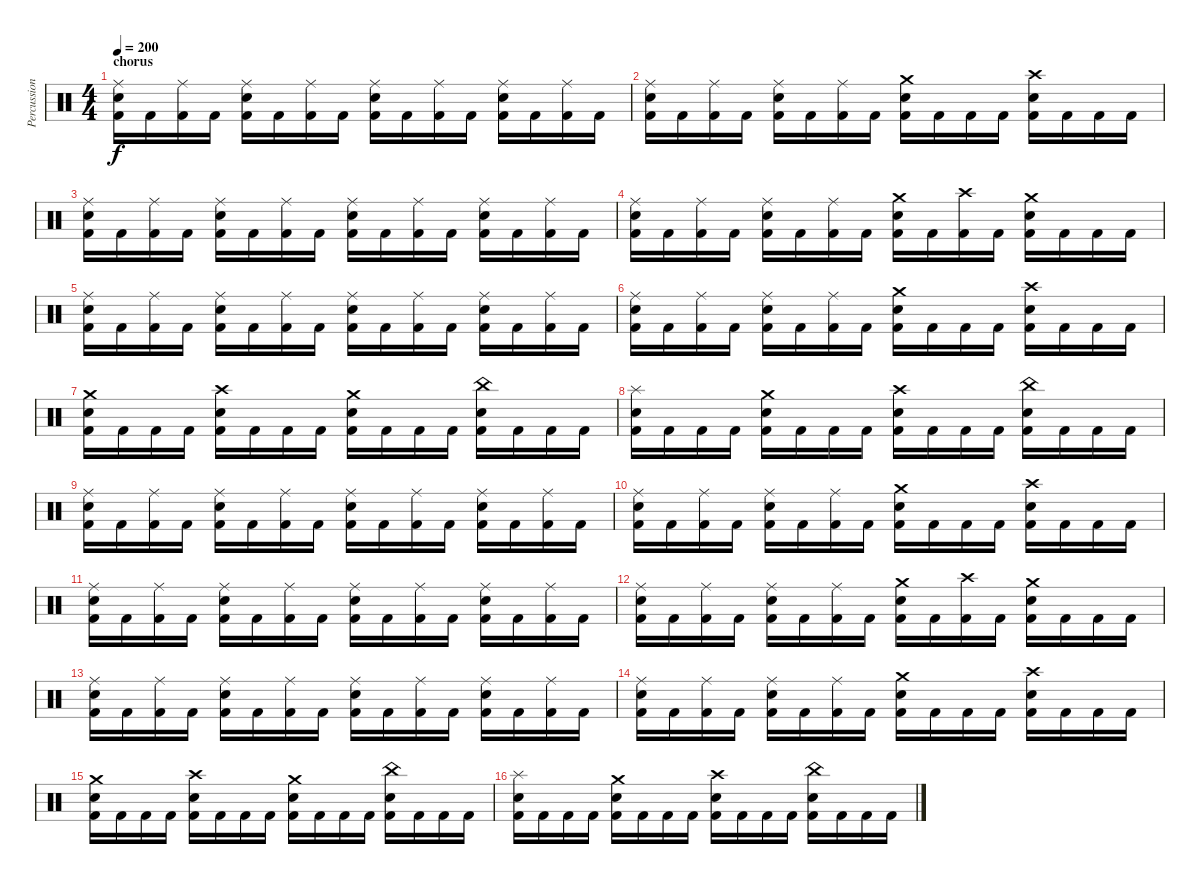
\track ("Percussions" "Percussion") {instrument percussion}
\staff {score}
\articulation defaults
\ts (4 4)
\section ("" "chorus")
\tempo 200
\clef neutral
\ks c
("Ride (middle)" "Electric Snare (hit)" "Kick (hit) 2").16{dy f} "Kick (hit) 2".16 ("Ride (middle)" "Kick (hit) 2").16 "Kick (hit) 2".16 ("Ride (middle)" "Electric Snare (hit)" "Kick (hit) 2").16 "Kick (hit) 2".16 ("Ride (middle)" "Kick (hit) 2").16 "Kick (hit) 2".16 ("Ride (middle)" "Electric Snare (hit)" "Kick (hit) 2").16 "Kick (hit) 2".16 ("Ride (middle)" "Kick (hit) 2").16 "Kick (hit) 2".16 ("Ride (middle)" "Electric Snare (hit)" "Kick (hit) 2").16 "Kick (hit) 2".16 ("Ride (middle)" "Kick (hit) 2").16 "Kick (hit) 2".16 |
("Ride (middle)" "Electric Snare (hit)" "Kick (hit) 2").16 "Kick (hit) 2".16 ("Ride (middle)" "Kick (hit) 2").16 "Kick (hit) 2".16 ("Ride (middle)" "Electric Snare (hit)" "Kick (hit) 2").16 "Kick (hit) 2".16 ("Ride (middle)" "Kick (hit) 2").16 "Kick (hit) 2".16 ("Crash medium (hit)" "Electric Snare (hit)" "Kick (hit) 2").16 "Kick (hit) 2".16 "Kick (hit) 2".16 "Kick (hit) 2".16 ("Crash high (hit)" "Electric Snare (hit)" "Kick (hit) 2").16 "Kick (hit) 2".16 "Kick (hit) 2".16 "Kick (hit) 2".16 |
("Ride (middle)" "Electric Snare (hit)" "Kick (hit) 2").16 "Kick (hit) 2".16 ("Ride (middle)" "Kick (hit) 2").16 "Kick (hit) 2".16 ("Ride (middle)" "Electric Snare (hit)" "Kick (hit) 2").16 "Kick (hit) 2".16 ("Ride (middle)" "Kick (hit) 2").16 "Kick (hit) 2".16 ("Ride (middle)" "Electric Snare (hit)" "Kick (hit) 2").16 "Kick (hit) 2".16 ("Ride (middle)" "Kick (hit) 2").16 "Kick (hit) 2".16 ("Ride (middle)" "Electric Snare (hit)" "Kick (hit) 2").16 "Kick (hit) 2".16 ("Ride (middle)" "Kick (hit) 2").16 "Kick (hit) 2".16 |
("Ride (middle)" "Electric Snare (hit)" "Kick (hit) 2").16 "Kick (hit) 2".16 ("Ride (middle)" "Kick (hit) 2").16 "Kick (hit) 2".16 ("Ride (middle)" "Electric Snare (hit)" "Kick (hit) 2").16 "Kick (hit) 2".16 ("Ride (middle)" "Kick (hit) 2").16 "Kick (hit) 2".16 ("Crash medium (hit)" "Electric Snare (hit)" "Kick (hit) 2").16 "Kick (hit) 2".16 ("Crash high (hit)" "Kick (hit) 2").16 "Kick (hit) 2".16 ("Crash medium (hit)" "Electric Snare (hit)" "Kick (hit) 2").16 "Kick (hit) 2".16 "Kick (hit) 2".16 "Kick (hit) 2".16 |
("Ride (middle)" "Electric Snare (hit)" "Kick (hit) 2").16 "Kick (hit) 2".16 ("Ride (middle)" "Kick (hit) 2").16 "Kick (hit) 2".16 ("Ride (middle)" "Electric Snare (hit)" "Kick (hit) 2").16 "Kick (hit) 2".16 ("Ride (middle)" "Kick (hit) 2").16 "Kick (hit) 2".16 ("Ride (middle)" "Electric Snare (hit)" "Kick (hit) 2").16 "Kick (hit) 2".16 ("Ride (middle)" "Kick (hit) 2").16 "Kick (hit) 2".16 ("Ride (middle)" "Electric Snare (hit)" "Kick (hit) 2").16 "Kick (hit) 2".16 ("Ride (middle)" "Kick (hit) 2").16 "Kick (hit) 2".16 |
("Ride (middle)" "Electric Snare (hit)" "Kick (hit) 2").16 "Kick (hit) 2".16 ("Ride (middle)" "Kick (hit) 2").16 "Kick (hit) 2".16 ("Ride (middle)" "Electric Snare (hit)" "Kick (hit) 2").16 "Kick (hit) 2".16 ("Ride (middle)" "Kick (hit) 2").16 "Kick (hit) 2".16 ("Crash medium (hit)" "Electric Snare (hit)" "Kick (hit) 2").16 "Kick (hit) 2".16 "Kick (hit) 2".16 "Kick (hit) 2".16 ("Crash high (hit)" "Electric Snare (hit)" "Kick (hit) 2").16 "Kick (hit) 2".16 "Kick (hit) 2".16 "Kick (hit) 2".16 |
("Crash medium (hit)" "Electric Snare (hit)" "Kick (hit) 2").16 "Kick (hit) 2".16 "Kick (hit) 2".16 "Kick (hit) 2".16 ("Crash high (hit)" "Electric Snare (hit)" "Kick (hit) 2").16 "Kick (hit) 2".16 "Kick (hit) 2".16 "Kick (hit) 2".16 ("Crash medium (hit)" "Electric Snare (hit)" "Kick (hit) 2").16 "Kick (hit) 2".16 "Kick (hit) 2".16 "Kick (hit) 2".16 ("China (hit)" "Electric Snare (hit)" "Kick (hit) 2").16 "Kick (hit) 2".16 "Kick (hit) 2".16 "Kick (hit) 2".16 |
("Splash (hit)" "Electric Snare (hit)" "Kick (hit) 2").16 "Kick (hit) 2".16 "Kick (hit) 2".16 "Kick (hit) 2".16 ("Crash medium (hit)" "Electric Snare (hit)" "Kick (hit) 2").16 "Kick (hit) 2".16 "Kick (hit) 2".16 "Kick (hit) 2".16 ("Crash high (hit)" "Electric Snare (hit)" "Kick (hit) 2").16 "Kick (hit) 2".16 "Kick (hit) 2".16 "Kick (hit) 2".16 ("China (hit)" "Electric Snare (hit)" "Kick (hit) 2").16 "Kick (hit) 2".16 "Kick (hit) 2".16 "Kick (hit) 2".16 |
("Ride (middle)" "Electric Snare (hit)" "Kick (hit) 2").16 "Kick (hit) 2".16 ("Ride (middle)" "Kick (hit) 2").16 "Kick (hit) 2".16 ("Ride (middle)" "Electric Snare (hit)" "Kick (hit) 2").16 "Kick (hit) 2".16 ("Ride (middle)" "Kick (hit) 2").16 "Kick (hit) 2".16 ("Ride (middle)" "Electric Snare (hit)" "Kick (hit) 2").16 "Kick (hit) 2".16 ("Ride (middle)" "Kick (hit) 2").16 "Kick (hit) 2".16 ("Ride (middle)" "Electric Snare (hit)" "Kick (hit) 2").16 "Kick (hit) 2".16 ("Ride (middle)" "Kick (hit) 2").16 "Kick (hit) 2".16 |
("Ride (middle)" "Electric Snare (hit)" "Kick (hit) 2").16 "Kick (hit) 2".16 ("Ride (middle)" "Kick (hit) 2").16 "Kick (hit) 2".16 ("Ride (middle)" "Electric Snare (hit)" "Kick (hit) 2").16 "Kick (hit) 2".16 ("Ride (middle)" "Kick (hit) 2").16 "Kick (hit) 2".16 ("Crash medium (hit)" "Electric Snare (hit)" "Kick (hit) 2").16 "Kick (hit) 2".16 "Kick (hit) 2".16 "Kick (hit) 2".16 ("Crash high (hit)" "Electric Snare (hit)" "Kick (hit) 2").16 "Kick (hit) 2".16 "Kick (hit) 2".16 "Kick (hit) 2".16 |
("Ride (middle)" "Electric Snare (hit)" "Kick (hit) 2").16 "Kick (hit) 2".16 ("Ride (middle)" "Kick (hit) 2").16 "Kick (hit) 2".16 ("Ride (middle)" "Electric Snare (hit)" "Kick (hit) 2").16 "Kick (hit) 2".16 ("Ride (middle)" "Kick (hit) 2").16 "Kick (hit) 2".16 ("Ride (middle)" "Electric Snare (hit)" "Kick (hit) 2").16 "Kick (hit) 2".16 ("Ride (middle)" "Kick (hit) 2").16 "Kick (hit) 2".16 ("Ride (middle)" "Electric Snare (hit)" "Kick (hit) 2").16 "Kick (hit) 2".16 ("Ride (middle)" "Kick (hit) 2").16 "Kick (hit) 2".16 |
("Ride (middle)" "Electric Snare (hit)" "Kick (hit) 2").16 "Kick (hit) 2".16 ("Ride (middle)" "Kick (hit) 2").16 "Kick (hit) 2".16 ("Ride (middle)" "Electric Snare (hit)" "Kick (hit) 2").16 "Kick (hit) 2".16 ("Ride (middle)" "Kick (hit) 2").16 "Kick (hit) 2".16 ("Crash medium (hit)" "Electric Snare (hit)" "Kick (hit) 2").16 "Kick (hit) 2".16 ("Crash high (hit)" "Kick (hit) 2").16 "Kick (hit) 2".16 ("Crash medium (hit)" "Electric Snare (hit)" "Kick (hit) 2").16 "Kick (hit) 2".16 "Kick (hit) 2".16 "Kick (hit) 2".16 |
("Ride (middle)" "Electric Snare (hit)" "Kick (hit) 2").16 "Kick (hit) 2".16 ("Ride (middle)" "Kick (hit) 2").16 "Kick (hit) 2".16 ("Ride (middle)" "Electric Snare (hit)" "Kick (hit) 2").16 "Kick (hit) 2".16 ("Ride (middle)" "Kick (hit) 2").16 "Kick (hit) 2".16 ("Ride (middle)" "Electric Snare (hit)" "Kick (hit) 2").16 "Kick (hit) 2".16 ("Ride (middle)" "Kick (hit) 2").16 "Kick (hit) 2".16 ("Ride (middle)" "Electric Snare (hit)" "Kick (hit) 2").16 "Kick (hit) 2".16 ("Ride (middle)" "Kick (hit) 2").16 "Kick (hit) 2".16 |
("Ride (middle)" "Electric Snare (hit)" "Kick (hit) 2").16 "Kick (hit) 2".16 ("Ride (middle)" "Kick (hit) 2").16 "Kick (hit) 2".16 ("Ride (middle)" "Electric Snare (hit)" "Kick (hit) 2").16 "Kick (hit) 2".16 ("Ride (middle)" "Kick (hit) 2").16 "Kick (hit) 2".16 ("Crash medium (hit)" "Electric Snare (hit)" "Kick (hit) 2").16 "Kick (hit) 2".16 "Kick (hit) 2".16 "Kick (hit) 2".16 ("Crash high (hit)" "Electric Snare (hit)" "Kick (hit) 2").16 "Kick (hit) 2".16 "Kick (hit) 2".16 "Kick (hit) 2".16 |
("Crash medium (hit)" "Electric Snare (hit)" "Kick (hit) 2").16 "Kick (hit) 2".16 "Kick (hit) 2".16 "Kick (hit) 2".16 ("Crash high (hit)" "Electric Snare (hit)" "Kick (hit) 2").16 "Kick (hit) 2".16 "Kick (hit) 2".16 "Kick (hit) 2".16 ("Crash medium (hit)" "Electric Snare (hit)" "Kick (hit) 2").16 "Kick (hit) 2".16 "Kick (hit) 2".16 "Kick (hit) 2".16 ("China (hit)" "Electric Snare (hit)" "Kick (hit) 2").16 "Kick (hit) 2".16 "Kick (hit) 2".16 "Kick (hit) 2".16 |
("Splash (hit)" "Electric Snare (hit)" "Kick (hit) 2").16 "Kick (hit) 2".16 "Kick (hit) 2".16 "Kick (hit) 2".16 ("Crash medium (hit)" "Electric Snare (hit)" "Kick (hit) 2").16 "Kick (hit) 2".16 "Kick (hit) 2".16 "Kick (hit) 2".16 ("Crash high (hit)" "Electric Snare (hit)" "Kick (hit) 2").16 "Kick (hit) 2".16 "Kick (hit) 2".16 "Kick (hit) 2".16 ("China (hit)" "Electric Snare (hit)" "Kick (hit) 2").16 "Kick (hit) 2".16 "Kick (hit) 2".16 "Kick (hit) 2".16
